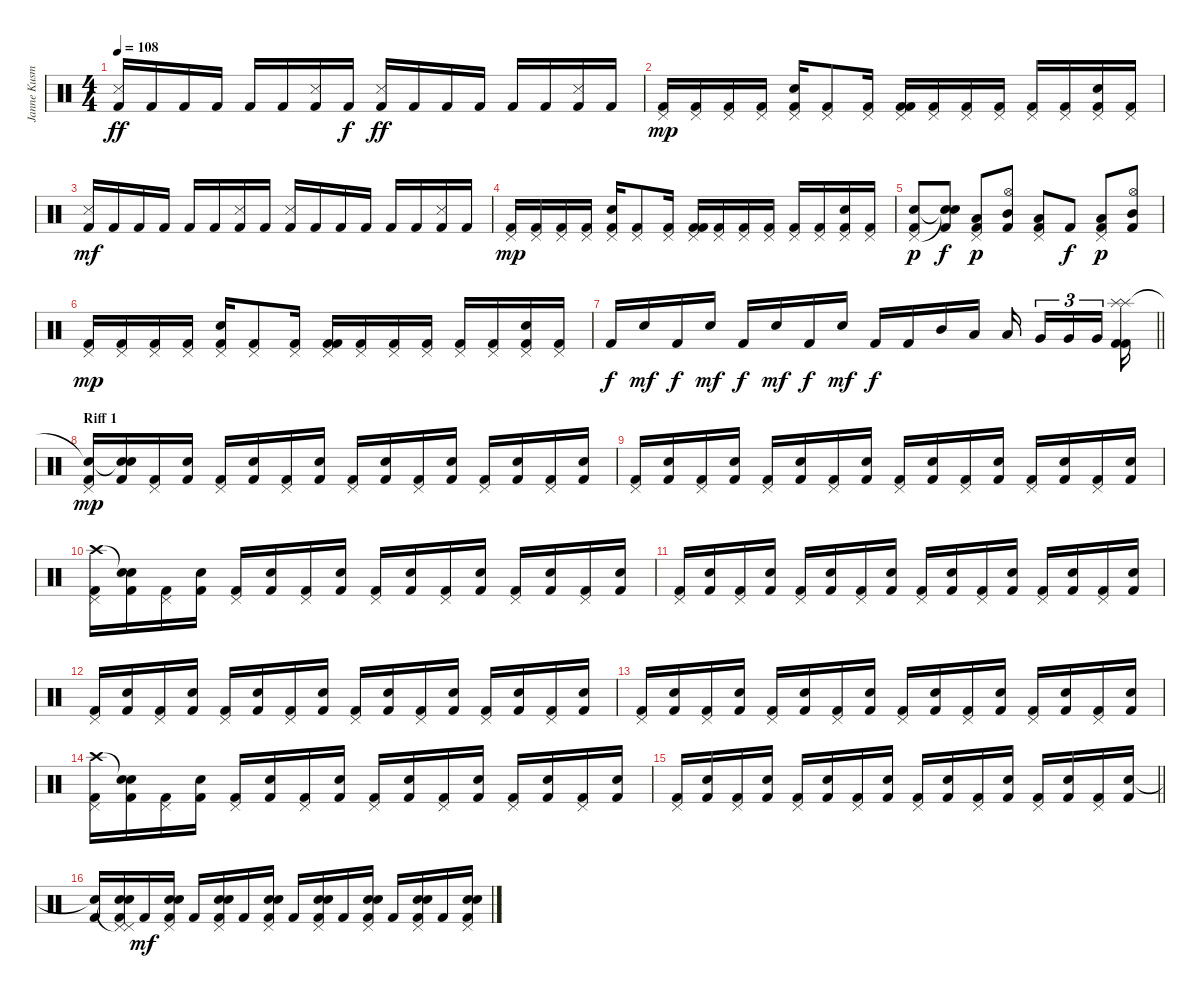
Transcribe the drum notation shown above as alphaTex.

\track ("Janne Kusmin" "Janne Kusm") {instrument percussion}
\staff {score}
\articulation defaults
\ts (4 4)
\tempo 108
\clef neutral
\ks c
("Snare (side stick) 3" "Kick (hit) 2").16{dy ff} "Kick (hit) 2".16 "Kick (hit) 2".16 "Kick (hit) 2".16 "Kick (hit) 2".16 "Kick (hit) 2".16 ("Snare (side stick) 3" "Kick (hit) 2").16 "Kick (hit) 2".16{dy f} ("Snare (side stick) 3" "Kick (hit) 2").16{dy ff} "Kick (hit) 2".16 "Kick (hit) 2".16 "Kick (hit) 2".16 "Kick (hit) 2".16 "Kick (hit) 2".16 ("Snare (side stick) 3" "Kick (hit) 2").16 "Kick (hit) 2".16 |
("Pedal Hi-Hat (hit)" "Kick (hit) 2").16{dy mp} ("Pedal Hi-Hat (hit)" "Kick (hit) 2").16 ("Pedal Hi-Hat (hit)" "Kick (hit) 2").16 ("Pedal Hi-Hat (hit)" "Kick (hit) 2").16 ("Pedal Hi-Hat (hit)" "Snare (hit) 2" "Kick (hit) 2").16 ("Pedal Hi-Hat (hit)" "Kick (hit) 2").8 ("Pedal Hi-Hat (hit)" "Kick (hit) 2").16 ("Pedal Hi-Hat (hit)" "Kick (hit) 2" "Kick (hit) 2").16 ("Pedal Hi-Hat (hit)" "Kick (hit) 2").16 ("Pedal Hi-Hat (hit)" "Kick (hit) 2").16 ("Pedal Hi-Hat (hit)" "Kick (hit) 2").16 ("Pedal Hi-Hat (hit)" "Kick (hit) 2").16 ("Pedal Hi-Hat (hit)" "Kick (hit) 2").16 ("Pedal Hi-Hat (hit)" "Snare (hit) 2" "Kick (hit) 2").16 ("Pedal Hi-Hat (hit)" "Kick (hit) 2").16 |
("Snare (side stick) 3" "Kick (hit) 2").16{dy mf} "Kick (hit) 2".16 "Kick (hit) 2".16 "Kick (hit) 2".16 "Kick (hit) 2".16 "Kick (hit) 2".16 ("Snare (side stick) 3" "Kick (hit) 2").16 "Kick (hit) 2".16 ("Snare (side stick) 3" "Kick (hit) 2").16 "Kick (hit) 2".16 "Kick (hit) 2".16 "Kick (hit) 2".16 "Kick (hit) 2".16 "Kick (hit) 2".16 ("Snare (side stick) 3" "Kick (hit) 2").16 "Kick (hit) 2".16 |
("Pedal Hi-Hat (hit)" "Kick (hit) 2").16{dy mp} ("Pedal Hi-Hat (hit)" "Kick (hit) 2").16 ("Pedal Hi-Hat (hit)" "Kick (hit) 2").16 ("Pedal Hi-Hat (hit)" "Kick (hit) 2").16 ("Pedal Hi-Hat (hit)" "Snare (hit) 2" "Kick (hit) 2").16 ("Pedal Hi-Hat (hit)" "Kick (hit) 2").8 ("Pedal Hi-Hat (hit)" "Kick (hit) 2").16 ("Pedal Hi-Hat (hit)" "Kick (hit) 2" "Kick (hit) 2").16 ("Pedal Hi-Hat (hit)" "Kick (hit) 2").16 ("Pedal Hi-Hat (hit)" "Kick (hit) 2").16 ("Pedal Hi-Hat (hit)" "Kick (hit) 2").16 ("Pedal Hi-Hat (hit)" "Kick (hit) 2").16 ("Pedal Hi-Hat (hit)" "Kick (hit) 2").16 ("Pedal Hi-Hat (hit)" "Snare (hit) 2" "Kick (hit) 2").16 ("Pedal Hi-Hat (hit)" "Kick (hit) 2").16 |
("Pedal Hi-Hat (hit)" "Snare (hit) 2" "Kick (hit) 2").8{dy p} ("Snare (hit)"{t} "Snare (hit)"{t} "Kick (hit) 2").8{dy f} ("Pedal Hi-Hat (hit)" "Low Tom (hit)" "Kick (hit) 2").8{dy p} ("Hi-Hat (open)" "Mid Tom (hit)" "Kick (hit) 2").8 ("Pedal Hi-Hat (hit)" "Low Tom (hit)" "Kick (hit) 2").8 "Kick (hit) 2".8{dy f} ("Pedal Hi-Hat (hit)" "Low Tom (hit)" "Kick (hit) 2").8{dy p} ("Hi-Hat (open)" "Mid Tom (hit)" "Kick (hit) 2").8 |
("Pedal Hi-Hat (hit)" "Kick (hit) 2").16{dy mp} ("Pedal Hi-Hat (hit)" "Kick (hit) 2").16 ("Pedal Hi-Hat (hit)" "Kick (hit) 2").16 ("Pedal Hi-Hat (hit)" "Kick (hit) 2").16 ("Pedal Hi-Hat (hit)" "Snare (hit) 2" "Kick (hit) 2").16 ("Pedal Hi-Hat (hit)" "Kick (hit) 2").8 ("Pedal Hi-Hat (hit)" "Kick (hit) 2").16 ("Pedal Hi-Hat (hit)" "Kick (hit) 2" "Kick (hit) 2").16 ("Pedal Hi-Hat (hit)" "Kick (hit) 2").16 ("Pedal Hi-Hat (hit)" "Kick (hit) 2").16 ("Pedal Hi-Hat (hit)" "Kick (hit) 2").16 ("Pedal Hi-Hat (hit)" "Kick (hit) 2").16 ("Pedal Hi-Hat (hit)" "Kick (hit) 2").16 ("Pedal Hi-Hat (hit)" "Snare (hit) 2" "Kick (hit) 2").16 ("Pedal Hi-Hat (hit)" "Kick (hit) 2").16 |
\barLineRight lightlight "Kick (hit) 2".16{dy f} "Snare (hit) 2".16{dy mf} "Kick (hit) 2".16{dy f} "Snare (hit) 2".16{dy mf} "Kick (hit) 2".16{dy f} "Snare (hit) 2".16{dy mf} "Kick (hit) 2".16{dy f} "Snare (hit) 2".16{dy mf} "Kick (hit) 2".16{dy f} "Kick (hit) 2".16 "Mid Tom (hit)".16 "Low Tom (hit)".16 "Low Tom (hit)".16{beam splitsecondary} "Very Low Tom (hit)".16{tu (3 2)} "Very Low Tom (hit)".16{tu (3 2)} "Very Low Tom (hit)".16{tu (3 2) beam splitsecondary}
("Splash (hit)" "Splash (hit)" "Kick (hit) 2" "Kick (hit) 2").16 |
\section ("" "Riff 1")
("Snare (hit)"{t} "Pedal Hi-Hat (hit)" "Kick (hit) 2").16{dy mp} ("Snare (hit)"{t} "Snare (hit) 2" "Kick (hit) 2").16 ("Pedal Hi-Hat (hit)" "Kick (hit) 2").16 ("Snare (hit) 2" "Kick (hit) 2").16 ("Pedal Hi-Hat (hit)" "Kick (hit) 2").16 ("Snare (hit) 2" "Kick (hit) 2").16 ("Pedal Hi-Hat (hit)" "Kick (hit) 2").16 ("Snare (hit) 2" "Kick (hit) 2").16 ("Pedal Hi-Hat (hit)" "Kick (hit) 2").16 ("Snare (hit) 2" "Kick (hit) 2").16 ("Pedal Hi-Hat (hit)" "Kick (hit) 2").16 ("Snare (hit) 2" "Kick (hit) 2").16 ("Pedal Hi-Hat (hit)" "Kick (hit) 2").16 ("Snare (hit) 2" "Kick (hit) 2").16 ("Pedal Hi-Hat (hit)" "Kick (hit) 2").16 ("Snare (hit) 2" "Kick (hit) 2").16 |
("Pedal Hi-Hat (hit)" "Kick (hit) 2").16 ("Snare (hit) 2" "Kick (hit) 2").16 ("Pedal Hi-Hat (hit)" "Kick (hit) 2").16 ("Snare (hit) 2" "Kick (hit) 2").16 ("Pedal Hi-Hat (hit)" "Kick (hit) 2").16 ("Snare (hit) 2" "Kick (hit) 2").16 ("Pedal Hi-Hat (hit)" "Kick (hit) 2").16 ("Snare (hit) 2" "Kick (hit) 2").16 ("Pedal Hi-Hat (hit)" "Kick (hit) 2").16 ("Snare (hit) 2" "Kick (hit) 2").16 ("Pedal Hi-Hat (hit)" "Kick (hit) 2").16 ("Snare (hit) 2" "Kick (hit) 2").16 ("Pedal Hi-Hat (hit)" "Kick (hit) 2").16 ("Snare (hit) 2" "Kick (hit) 2").16 ("Pedal Hi-Hat (hit)" "Kick (hit) 2").16 ("Snare (hit) 2" "Kick (hit) 2").16 |
("Crash high (hit)" "Pedal Hi-Hat (hit)" "Kick (hit) 2").16 ("Snare (hit)"{t} "Snare (hit) 2" "Kick (hit) 2").16 ("Pedal Hi-Hat (hit)" "Kick (hit) 2").16 ("Snare (hit) 2" "Kick (hit) 2").16 ("Pedal Hi-Hat (hit)" "Kick (hit) 2").16 ("Snare (hit) 2" "Kick (hit) 2").16 ("Pedal Hi-Hat (hit)" "Kick (hit) 2").16 ("Snare (hit) 2" "Kick (hit) 2").16 ("Pedal Hi-Hat (hit)" "Kick (hit) 2").16 ("Snare (hit) 2" "Kick (hit) 2").16 ("Pedal Hi-Hat (hit)" "Kick (hit) 2").16 ("Snare (hit) 2" "Kick (hit) 2").16 ("Pedal Hi-Hat (hit)" "Kick (hit) 2").16 ("Snare (hit) 2" "Kick (hit) 2").16 ("Pedal Hi-Hat (hit)" "Kick (hit) 2").16 ("Snare (hit) 2" "Kick (hit) 2").16 |
("Pedal Hi-Hat (hit)" "Kick (hit) 2").16 ("Snare (hit) 2" "Kick (hit) 2").16 ("Pedal Hi-Hat (hit)" "Kick (hit) 2").16 ("Snare (hit) 2" "Kick (hit) 2").16 ("Pedal Hi-Hat (hit)" "Kick (hit) 2").16 ("Snare (hit) 2" "Kick (hit) 2").16 ("Pedal Hi-Hat (hit)" "Kick (hit) 2").16 ("Snare (hit) 2" "Kick (hit) 2").16 ("Pedal Hi-Hat (hit)" "Kick (hit) 2").16 ("Snare (hit) 2" "Kick (hit) 2").16 ("Pedal Hi-Hat (hit)" "Kick (hit) 2").16 ("Snare (hit) 2" "Kick (hit) 2").16 ("Pedal Hi-Hat (hit)" "Kick (hit) 2").16 ("Snare (hit) 2" "Kick (hit) 2").16 ("Pedal Hi-Hat (hit)" "Kick (hit) 2").16 ("Snare (hit) 2" "Kick (hit) 2").16 |
("Pedal Hi-Hat (hit)" "Kick (hit) 2").16 ("Snare (hit) 2" "Kick (hit) 2").16 ("Pedal Hi-Hat (hit)" "Kick (hit) 2").16 ("Snare (hit) 2" "Kick (hit) 2").16 ("Pedal Hi-Hat (hit)" "Kick (hit) 2").16 ("Snare (hit) 2" "Kick (hit) 2").16 ("Pedal Hi-Hat (hit)" "Kick (hit) 2").16 ("Snare (hit) 2" "Kick (hit) 2").16 ("Pedal Hi-Hat (hit)" "Kick (hit) 2").16 ("Snare (hit) 2" "Kick (hit) 2").16 ("Pedal Hi-Hat (hit)" "Kick (hit) 2").16 ("Snare (hit) 2" "Kick (hit) 2").16 ("Pedal Hi-Hat (hit)" "Kick (hit) 2").16 ("Snare (hit) 2" "Kick (hit) 2").16 ("Pedal Hi-Hat (hit)" "Kick (hit) 2").16 ("Snare (hit) 2" "Kick (hit) 2").16 |
("Pedal Hi-Hat (hit)" "Kick (hit) 2").16 ("Snare (hit) 2" "Kick (hit) 2").16 ("Pedal Hi-Hat (hit)" "Kick (hit) 2").16 ("Snare (hit) 2" "Kick (hit) 2").16 ("Pedal Hi-Hat (hit)" "Kick (hit) 2").16 ("Snare (hit) 2" "Kick (hit) 2").16 ("Pedal Hi-Hat (hit)" "Kick (hit) 2").16 ("Snare (hit) 2" "Kick (hit) 2").16 ("Pedal Hi-Hat (hit)" "Kick (hit) 2").16 ("Snare (hit) 2" "Kick (hit) 2").16 ("Pedal Hi-Hat (hit)" "Kick (hit) 2").16 ("Snare (hit) 2" "Kick (hit) 2").16 ("Pedal Hi-Hat (hit)" "Kick (hit) 2").16 ("Snare (hit) 2" "Kick (hit) 2").16 ("Pedal Hi-Hat (hit)" "Kick (hit) 2").16 ("Snare (hit) 2" "Kick (hit) 2").16 |
("Crash high (hit)" "Pedal Hi-Hat (hit)" "Kick (hit) 2").16 ("Snare (hit)"{t} "Snare (hit) 2" "Kick (hit) 2").16 ("Pedal Hi-Hat (hit)" "Kick (hit) 2").16 ("Snare (hit) 2" "Kick (hit) 2").16 ("Pedal Hi-Hat (hit)" "Kick (hit) 2").16 ("Snare (hit) 2" "Kick (hit) 2").16 ("Pedal Hi-Hat (hit)" "Kick (hit) 2").16 ("Snare (hit) 2" "Kick (hit) 2").16 ("Pedal Hi-Hat (hit)" "Kick (hit) 2").16 ("Snare (hit) 2" "Kick (hit) 2").16 ("Pedal Hi-Hat (hit)" "Kick (hit) 2").16 ("Snare (hit) 2" "Kick (hit) 2").16 ("Pedal Hi-Hat (hit)" "Kick (hit) 2").16 ("Snare (hit) 2" "Kick (hit) 2").16 ("Pedal Hi-Hat (hit)" "Kick (hit) 2").16 ("Snare (hit) 2" "Kick (hit) 2").16 |
\barLineRight lightlight
("Pedal Hi-Hat (hit)" "Kick (hit) 2").16 ("Snare (hit) 2" "Kick (hit) 2").16 ("Pedal Hi-Hat (hit)" "Kick (hit) 2").16 ("Snare (hit) 2" "Kick (hit) 2").16 ("Pedal Hi-Hat (hit)" "Kick (hit) 2").16 ("Snare (hit) 2" "Kick (hit) 2").16 ("Pedal Hi-Hat (hit)" "Kick (hit) 2").16 ("Snare (hit) 2" "Kick (hit) 2").16 ("Pedal Hi-Hat (hit)" "Kick (hit) 2").16 ("Snare (hit) 2" "Kick (hit) 2").16 ("Pedal Hi-Hat (hit)" "Kick (hit) 2").16 ("Snare (hit) 2" "Kick (hit) 2").16 ("Pedal Hi-Hat (hit)" "Kick (hit) 2").16 ("Snare (hit) 2" "Kick (hit) 2").16 ("Pedal Hi-Hat (hit)" "Kick (hit) 2").16 ("Snare (hit) 2" "Kick (hit) 2").16 |
("Snare (hit)"{t} "Kick (hit) 2").16 ("Pedal Hi-Hat (hit)"{t} "Pedal Hi-Hat (hit)" "Snare (hit) 2" "Snare (hit) 2" "Kick (hit) 2").16 "Kick (hit) 2".16{dy mf} ("Pedal Hi-Hat (hit)" "Snare (hit) 2" "Snare (hit) 2" "Kick (hit) 2").16 "Kick (hit) 2".16 ("Pedal Hi-Hat (hit)" "Snare (hit) 2" "Snare (hit) 2" "Kick (hit) 2").16 "Kick (hit) 2".16 ("Pedal Hi-Hat (hit)" "Snare (hit) 2" "Snare (hit) 2" "Kick (hit) 2").16 "Kick (hit) 2".16 ("Pedal Hi-Hat (hit)" "Snare (hit) 2" "Snare (hit) 2" "Kick (hit) 2").16 "Kick (hit) 2".16 ("Pedal Hi-Hat (hit)" "Snare (hit) 2" "Snare (hit) 2" "Kick (hit) 2").16 "Kick (hit) 2".16 ("Pedal Hi-Hat (hit)" "Snare (hit) 2" "Snare (hit) 2" "Kick (hit) 2").16 "Kick (hit) 2".16 ("Pedal Hi-Hat (hit)" "Snare (hit) 2" "Snare (hit) 2" "Kick (hit) 2").16
